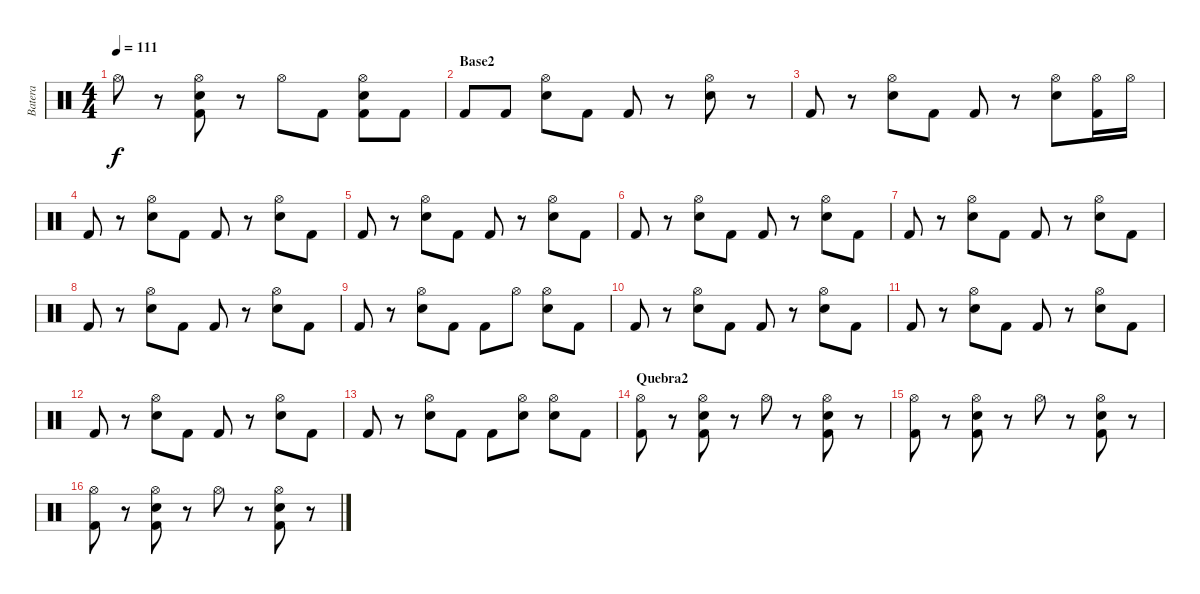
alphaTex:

\track ("Batera" "Batera") {instrument percussion}
\staff {score}
\articulation defaults
\ts (4 4)
\tempo 111
\clef neutral
\ks c "Hi-Hat (open)".8{dy f}
r.8 ("Hi-Hat (open)" "Snare (hit) 2" "Kick (hit) 2").8 r.8 "Hi-Hat (open)".8 "Kick (hit) 2".8 ("Hi-Hat (open)" "Snare (hit) 2" "Kick (hit) 2").8 "Kick (hit) 2".8 |
\section ("" "Base2")
"Kick (hit) 2".8 "Kick (hit) 2".8 ("Hi-Hat (open)" "Snare (hit) 2").8 "Kick (hit) 2".8 "Kick (hit) 2".8 r.8 ("Hi-Hat (open)" "Snare (hit) 2").8 r.8 |
"Kick (hit) 2".8 r.8 ("Hi-Hat (open)" "Snare (hit) 2").8 "Kick (hit) 2".8 "Kick (hit) 2".8 r.8 ("Hi-Hat (open)" "Snare (hit) 2").8 ("Hi-Hat (open)" "Kick (hit) 2").16 "Hi-Hat (open)".16 |
"Kick (hit) 2".8 r.8 ("Hi-Hat (open)" "Snare (hit) 2").8 "Kick (hit) 2".8 "Kick (hit) 2".8 r.8 ("Hi-Hat (open)" "Snare (hit) 2").8 "Kick (hit) 2".8 |
"Kick (hit) 2".8 r.8 ("Hi-Hat (open)" "Snare (hit) 2").8 "Kick (hit) 2".8 "Kick (hit) 2".8 r.8 ("Hi-Hat (open)" "Snare (hit) 2").8 "Kick (hit) 2".8 |
"Kick (hit) 2".8 r.8 ("Hi-Hat (open)" "Snare (hit) 2").8 "Kick (hit) 2".8 "Kick (hit) 2".8 r.8 ("Hi-Hat (open)" "Snare (hit) 2").8 "Kick (hit) 2".8 |
"Kick (hit) 2".8 r.8 ("Hi-Hat (open)" "Snare (hit) 2").8 "Kick (hit) 2".8 "Kick (hit) 2".8 r.8 ("Hi-Hat (open)" "Snare (hit) 2").8 "Kick (hit) 2".8 |
"Kick (hit) 2".8 r.8 ("Hi-Hat (open)" "Snare (hit) 2").8 "Kick (hit) 2".8 "Kick (hit) 2".8 r.8 ("Hi-Hat (open)" "Snare (hit) 2").8 "Kick (hit) 2".8 |
"Kick (hit) 2".8 r.8 ("Hi-Hat (open)" "Snare (hit) 2").8 "Kick (hit) 2".8 "Kick (hit) 2".8 "Hi-Hat (open)".8 ("Hi-Hat (open)" "Snare (hit) 2").8 "Kick (hit) 2".8 |
"Kick (hit) 2".8 r.8 ("Hi-Hat (open)" "Snare (hit) 2").8 "Kick (hit) 2".8 "Kick (hit) 2".8 r.8 ("Hi-Hat (open)" "Snare (hit) 2").8 "Kick (hit) 2".8 |
"Kick (hit) 2".8 r.8 ("Hi-Hat (open)" "Snare (hit) 2").8 "Kick (hit) 2".8 "Kick (hit) 2".8 r.8 ("Hi-Hat (open)" "Snare (hit) 2").8 "Kick (hit) 2".8 |
"Kick (hit) 2".8 r.8 ("Hi-Hat (open)" "Snare (hit) 2").8 "Kick (hit) 2".8 "Kick (hit) 2".8 r.8 ("Hi-Hat (open)" "Snare (hit) 2").8 "Kick (hit) 2".8 |
"Kick (hit) 2".8 r.8 ("Hi-Hat (open)" "Snare (hit) 2").8 "Kick (hit) 2".8 "Kick (hit) 2".8 ("Hi-Hat (open)" "Snare (hit) 2").8 ("Hi-Hat (open)" "Snare (hit) 2").8 "Kick (hit) 2".8 |
\section ("" "Quebra2")
("Hi-Hat (open)" "Kick (hit) 2").8 r.8 ("Hi-Hat (open)" "Snare (hit) 2" "Kick (hit) 2").8 r.8 "Hi-Hat (open)".8 r.8 ("Hi-Hat (open)" "Snare (hit) 2" "Kick (hit) 2").8 r.8 |
("Hi-Hat (open)" "Kick (hit) 2").8 r.8 ("Hi-Hat (open)" "Snare (hit) 2" "Kick (hit) 2").8 r.8 "Hi-Hat (open)".8 r.8 ("Hi-Hat (open)" "Snare (hit) 2" "Kick (hit) 2").8 r.8 |
("Hi-Hat (open)" "Kick (hit) 2").8 r.8 ("Hi-Hat (open)" "Snare (hit) 2" "Kick (hit) 2").8 r.8 "Hi-Hat (open)".8 r.8 ("Hi-Hat (open)" "Snare (hit) 2" "Kick (hit) 2").8 r.8
